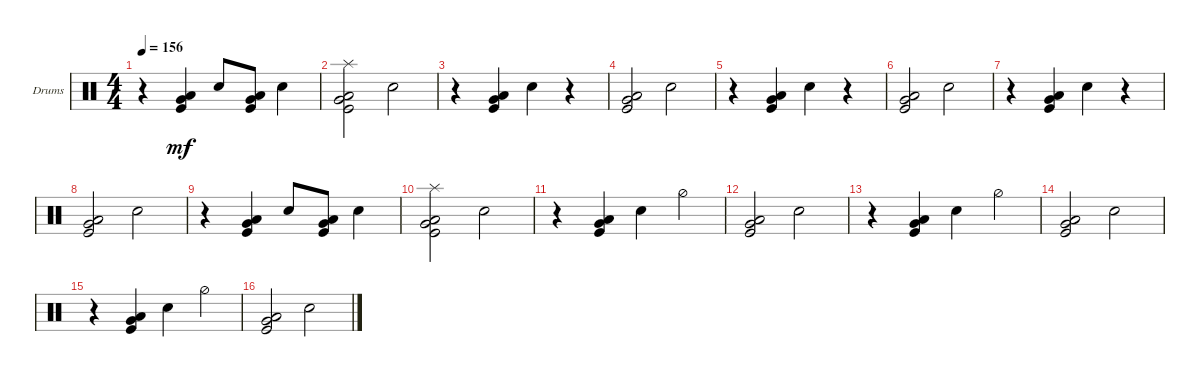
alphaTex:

\defaultSystemsLayout 4
\bracketExtendMode groupsimilarinstruments
\firstSystemTrackNameOrientation horizontal
\otherSystemsTrackNameOrientation horizontal
\track ("Drumkit" "Drums") {instrument percussion}
\staff {score}
\articulation defaults
\ts (4 4)
\tempo 156
\clef neutral
\ks c
r.4{dy mf} ("Low Tom (hit)" "Kick (hit)" "Very Low Tom (hit)").4 "Snare (hit) 2".8 ("Low Tom (hit)" "Kick (hit)" "Very Low Tom (hit)").8 "Snare (hit) 2".4 |
("Low Tom (hit)" "Kick (hit)" "Very Low Tom (hit)" "Splash (hit)").2 "Snare (hit) 2".2 |
r.4 ("Low Tom (hit)" "Kick (hit)" "Very Low Tom (hit)").4 "Snare (hit) 2".4 r.4 |
("Low Tom (hit)" "Kick (hit)" "Very Low Tom (hit)").2 "Snare (hit) 2".2 |
r.4 ("Low Tom (hit)" "Kick (hit)" "Very Low Tom (hit)").4 "Snare (hit) 2".4 r.4 |
("Low Tom (hit)" "Kick (hit)" "Very Low Tom (hit)").2 "Snare (hit) 2".2 |
r.4 ("Low Tom (hit)" "Kick (hit)" "Very Low Tom (hit)").4 "Snare (hit) 2".4 r.4 |
("Low Tom (hit)" "Kick (hit)" "Very Low Tom (hit)").2 "Snare (hit) 2".2 |
r.4 ("Low Tom (hit)" "Kick (hit)" "Very Low Tom (hit)").4 "Snare (hit) 2".8 ("Low Tom (hit)" "Kick (hit)" "Very Low Tom (hit)").8 "Snare (hit) 2".4 |
("Low Tom (hit)" "Kick (hit)" "Very Low Tom (hit)" "Splash (hit)").2 "Snare (hit) 2".2 |
r.4 ("Low Tom (hit)" "Kick (hit)" "Very Low Tom (hit)").4 "Snare (hit) 2".4 "Hi-Hat (half)".4 |
("Low Tom (hit)" "Kick (hit)" "Very Low Tom (hit)").2 "Snare (hit) 2".2 |
r.4 ("Low Tom (hit)" "Kick (hit)" "Very Low Tom (hit)").4 "Snare (hit) 2".4 "Hi-Hat (half)".4 |
("Low Tom (hit)" "Kick (hit)" "Very Low Tom (hit)").2 "Snare (hit) 2".2 |
r.4 ("Low Tom (hit)" "Kick (hit)" "Very Low Tom (hit)").4 "Snare (hit) 2".4 "Hi-Hat (half)".4 |
("Low Tom (hit)" "Kick (hit)" "Very Low Tom (hit)").2 "Snare (hit) 2".2
